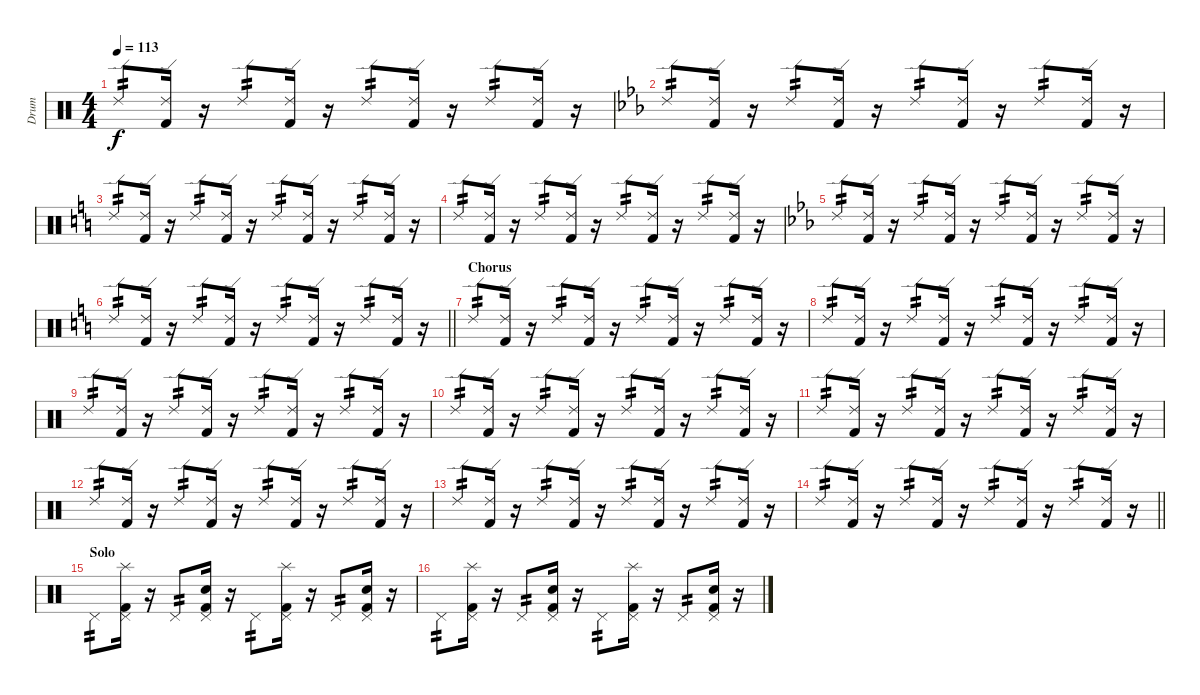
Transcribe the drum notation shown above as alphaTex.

\track ("Drum" "Drum") {instrument percussion}
\staff {score}
\articulation defaults
\ts (4 4)
\tempo 113
\clef neutral
\ks c "Ride (edge) 2".8{tp 2 dy f}
("Ride (edge) 2" "Kick (hit) 2").16 r.16 "Ride (edge) 2".8{tp 2} ("Ride (edge) 2" "Kick (hit) 2").16 r.16 "Ride (edge) 2".8{tp 2} ("Ride (edge) 2" "Kick (hit) 2").16 r.16 "Ride (edge) 2".8{tp 2} ("Ride (edge) 2" "Kick (hit) 2").16 r.16 |
\ks eb "Ride (edge) 2".8{tp 2}
("Ride (edge) 2" "Kick (hit) 2").16 r.16 "Ride (edge) 2".8{tp 2} ("Ride (edge) 2" "Kick (hit) 2").16 r.16 "Ride (edge) 2".8{tp 2} ("Ride (edge) 2" "Kick (hit) 2").16 r.16 "Ride (edge) 2".8{tp 2} ("Ride (edge) 2" "Kick (hit) 2").16 r.16 |
\ks c "Ride (edge) 2".8{tp 2}
("Ride (edge) 2" "Kick (hit) 2").16 r.16 "Ride (edge) 2".8{tp 2} ("Ride (edge) 2" "Kick (hit) 2").16 r.16 "Ride (edge) 2".8{tp 2} ("Ride (edge) 2" "Kick (hit) 2").16 r.16 "Ride (edge) 2".8{tp 2} ("Ride (edge) 2" "Kick (hit) 2").16 r.16 |
"Ride (edge) 2".8{tp 2} ("Ride (edge) 2" "Kick (hit) 2").16 r.16 "Ride (edge) 2".8{tp 2} ("Ride (edge) 2" "Kick (hit) 2").16 r.16 "Ride (edge) 2".8{tp 2} ("Ride (edge) 2" "Kick (hit) 2").16 r.16 "Ride (edge) 2".8{tp 2} ("Ride (edge) 2" "Kick (hit) 2").16 r.16 |
\ks eb "Ride (edge) 2".8{tp 2}
("Ride (edge) 2" "Kick (hit) 2").16 r.16 "Ride (edge) 2".8{tp 2} ("Ride (edge) 2" "Kick (hit) 2").16 r.16 "Ride (edge) 2".8{tp 2} ("Ride (edge) 2" "Kick (hit) 2").16 r.16 "Ride (edge) 2".8{tp 2} ("Ride (edge) 2" "Kick (hit) 2").16 r.16 |
\barLineRight lightlight
\ks c "Ride (edge) 2".8{tp 2}
("Ride (edge) 2" "Kick (hit) 2").16 r.16 "Ride (edge) 2".8{tp 2} ("Ride (edge) 2" "Kick (hit) 2").16 r.16 "Ride (edge) 2".8{tp 2} ("Ride (edge) 2" "Kick (hit) 2").16 r.16 "Ride (edge) 2".8{tp 2} ("Ride (edge) 2" "Kick (hit) 2").16 r.16 |
\section ("" "Chorus")
"Ride (edge) 2".8{tp 2} ("Ride (edge) 2" "Kick (hit) 2").16 r.16 "Ride (edge) 2".8{tp 2} ("Ride (edge) 2" "Kick (hit) 2").16 r.16 "Ride (edge) 2".8{tp 2} ("Ride (edge) 2" "Kick (hit) 2").16 r.16 "Ride (edge) 2".8{tp 2} ("Ride (edge) 2" "Kick (hit) 2").16 r.16 |
"Ride (edge) 2".8{tp 2} ("Ride (edge) 2" "Kick (hit) 2").16 r.16 "Ride (edge) 2".8{tp 2} ("Ride (edge) 2" "Kick (hit) 2").16 r.16 "Ride (edge) 2".8{tp 2} ("Ride (edge) 2" "Kick (hit) 2").16 r.16 "Ride (edge) 2".8{tp 2} ("Ride (edge) 2" "Kick (hit) 2").16 r.16 |
"Ride (edge) 2".8{tp 2} ("Ride (edge) 2" "Kick (hit) 2").16 r.16 "Ride (edge) 2".8{tp 2} ("Ride (edge) 2" "Kick (hit) 2").16 r.16 "Ride (edge) 2".8{tp 2} ("Ride (edge) 2" "Kick (hit) 2").16 r.16 "Ride (edge) 2".8{tp 2} ("Ride (edge) 2" "Kick (hit) 2").16 r.16 |
"Ride (edge) 2".8{tp 2} ("Ride (edge) 2" "Kick (hit) 2").16 r.16 "Ride (edge) 2".8{tp 2} ("Ride (edge) 2" "Kick (hit) 2").16 r.16 "Ride (edge) 2".8{tp 2} ("Ride (edge) 2" "Kick (hit) 2").16 r.16 "Ride (edge) 2".8{tp 2} ("Ride (edge) 2" "Kick (hit) 2").16 r.16 |
"Ride (edge) 2".8{tp 2} ("Ride (edge) 2" "Kick (hit) 2").16 r.16 "Ride (edge) 2".8{tp 2} ("Ride (edge) 2" "Kick (hit) 2").16 r.16 "Ride (edge) 2".8{tp 2} ("Ride (edge) 2" "Kick (hit) 2").16 r.16 "Ride (edge) 2".8{tp 2} ("Ride (edge) 2" "Kick (hit) 2").16 r.16 |
"Ride (edge) 2".8{tp 2} ("Ride (edge) 2" "Kick (hit) 2").16 r.16 "Ride (edge) 2".8{tp 2} ("Ride (edge) 2" "Kick (hit) 2").16 r.16 "Ride (edge) 2".8{tp 2} ("Ride (edge) 2" "Kick (hit) 2").16 r.16 "Ride (edge) 2".8{tp 2} ("Ride (edge) 2" "Kick (hit) 2").16 r.16 |
"Ride (edge) 2".8{tp 2} ("Ride (edge) 2" "Kick (hit) 2").16 r.16 "Ride (edge) 2".8{tp 2} ("Ride (edge) 2" "Kick (hit) 2").16 r.16 "Ride (edge) 2".8{tp 2} ("Ride (edge) 2" "Kick (hit) 2").16 r.16 "Ride (edge) 2".8{tp 2} ("Ride (edge) 2" "Kick (hit) 2").16 r.16 |
\barLineRight lightlight "Ride (edge) 2".8{tp 2}
("Ride (edge) 2" "Kick (hit) 2").16 r.16 "Ride (edge) 2".8{tp 2} ("Ride (edge) 2" "Kick (hit) 2").16 r.16 "Ride (edge) 2".8{tp 2} ("Ride (edge) 2" "Kick (hit) 2").16 r.16 "Ride (edge) 2".8{tp 2} ("Ride (edge) 2" "Kick (hit) 2").16 r.16 |
\section ("" "Solo")
"Pedal Hi-Hat (hit)".8{tp 2} ("Pedal Hi-Hat (hit)" "Kick (hit) 2" "Splash (hit)").16 r.16 "Pedal Hi-Hat (hit)".8{tp 2} ("Pedal Hi-Hat (hit)" "Snare (hit) 2" "Kick (hit) 2").16 r.16 "Pedal Hi-Hat (hit)".8{tp 2} ("Pedal Hi-Hat (hit)" "Kick (hit) 2" "Splash (hit)").16 r.16 "Pedal Hi-Hat (hit)".8{tp 2} ("Pedal Hi-Hat (hit)" "Snare (hit) 2" "Kick (hit) 2").16 r.16 |
"Pedal Hi-Hat (hit)".8{tp 2} ("Pedal Hi-Hat (hit)" "Kick (hit) 2" "Splash (hit)").16 r.16 "Pedal Hi-Hat (hit)".8{tp 2} ("Pedal Hi-Hat (hit)" "Kick (hit) 2" "Snare (hit) 2").16 r.16 "Pedal Hi-Hat (hit)".8{tp 2} ("Pedal Hi-Hat (hit)" "Kick (hit) 2" "Splash (hit)").16 r.16 "Pedal Hi-Hat (hit)".8{tp 2} ("Pedal Hi-Hat (hit)" "Kick (hit) 2" "Snare (hit) 2").16 r.16
